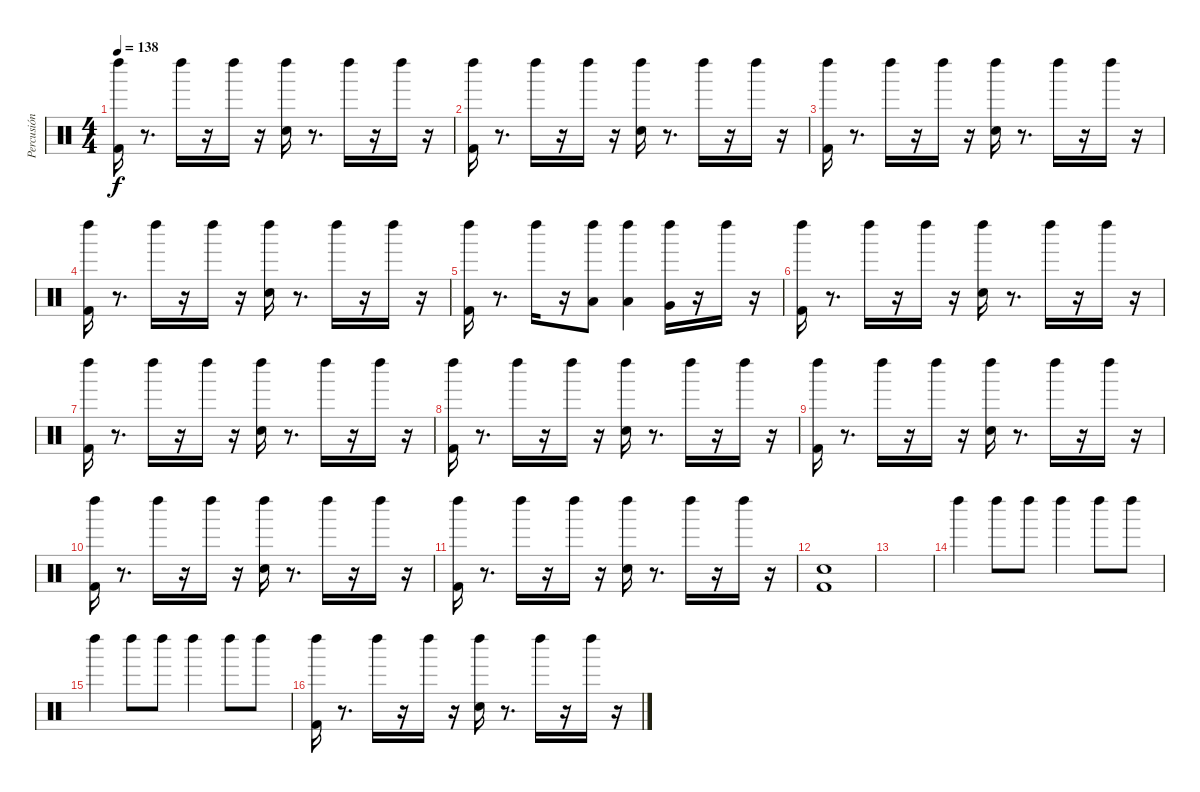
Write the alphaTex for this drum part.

\track ("Percusión" "Percusión") {instrument percussion}
\staff {score}
\articulation defaults
\ts (4 4)
\tempo 138
\clef neutral
\ks c
("Kick (hit) 2" "Left Maraca (hit)").16{dy f} r.8{d} "Left Maraca (hit)".16 r.16 "Left Maraca (hit)".16 r.16 ("Left Maraca (hit)" "Electric Snare (hit)").16 r.8{d} "Left Maraca (hit)".16 r.16 "Left Maraca (hit)".16 r.16 |
("Kick (hit) 2" "Left Maraca (hit)").16 r.8{d} "Left Maraca (hit)".16 r.16 "Left Maraca (hit)".16 r.16 ("Left Maraca (hit)" "Electric Snare (hit)").16 r.8{d} "Left Maraca (hit)".16 r.16 "Left Maraca (hit)".16 r.16 |
("Kick (hit) 2" "Left Maraca (hit)").16 r.8{d} "Left Maraca (hit)".16 r.16 "Left Maraca (hit)".16 r.16 ("Left Maraca (hit)" "Electric Snare (hit)").16 r.8{d} "Left Maraca (hit)".16 r.16 "Left Maraca (hit)".16 r.16 |
("Kick (hit) 2" "Left Maraca (hit)").16 r.8{d} "Left Maraca (hit)".16 r.16 "Left Maraca (hit)".16 r.16 ("Left Maraca (hit)" "Electric Snare (hit)").16 r.8{d} "Left Maraca (hit)".16 r.16 "Left Maraca (hit)".16 r.16 |
("Kick (hit) 2" "Left Maraca (hit)").16 r.8{d} "Left Maraca (hit)".16 r.16 ("Left Maraca (hit)" "Low Tom (hit)").8 ("Left Maraca (hit)" "Low Tom (hit)").4 ("Left Maraca (hit)" "Very Low Tom (hit)").16 r.16 "Left Maraca (hit)".16 r.16 |
("Kick (hit) 2" "Left Maraca (hit)").16 r.8{d} "Left Maraca (hit)".16 r.16 "Left Maraca (hit)".16 r.16 ("Left Maraca (hit)" "Electric Snare (hit)").16 r.8{d} "Left Maraca (hit)".16 r.16 "Left Maraca (hit)".16 r.16 |
("Kick (hit) 2" "Left Maraca (hit)").16 r.8{d} "Left Maraca (hit)".16 r.16 "Left Maraca (hit)".16 r.16 ("Left Maraca (hit)" "Electric Snare (hit)").16 r.8{d} "Left Maraca (hit)".16 r.16 "Left Maraca (hit)".16 r.16 |
("Kick (hit) 2" "Left Maraca (hit)").16 r.8{d} "Left Maraca (hit)".16 r.16 "Left Maraca (hit)".16 r.16 ("Left Maraca (hit)" "Electric Snare (hit)").16 r.8{d} "Left Maraca (hit)".16 r.16 "Left Maraca (hit)".16 r.16 |
("Kick (hit) 2" "Left Maraca (hit)").16 r.8{d} "Left Maraca (hit)".16 r.16 "Left Maraca (hit)".16 r.16 ("Left Maraca (hit)" "Electric Snare (hit)").16 r.8{d} "Left Maraca (hit)".16 r.16 "Left Maraca (hit)".16 r.16 |
("Kick (hit) 2" "Left Maraca (hit)").16 r.8{d} "Left Maraca (hit)".16 r.16 "Left Maraca (hit)".16 r.16 ("Left Maraca (hit)" "Electric Snare (hit)").16 r.8{d} "Left Maraca (hit)".16 r.16 "Left Maraca (hit)".16 r.16 |
("Kick (hit) 2" "Left Maraca (hit)").16 r.8{d} "Left Maraca (hit)".16 r.16 "Left Maraca (hit)".16 r.16 ("Left Maraca (hit)" "Electric Snare (hit)").16 r.8{d} "Left Maraca (hit)".16 r.16 "Left Maraca (hit)".16 r.16 |
("Electric Snare (hit)" "Kick (hit) 2").1 |
|
"Left Maraca (hit)".4 "Left Maraca (hit)".8 "Left Maraca (hit)".8 "Left Maraca (hit)".4 "Left Maraca (hit)".8 "Left Maraca (hit)".8 |
"Left Maraca (hit)".4 "Left Maraca (hit)".8 "Left Maraca (hit)".8 "Left Maraca (hit)".4 "Left Maraca (hit)".8 "Left Maraca (hit)".8 |
("Kick (hit) 2" "Left Maraca (hit)").16 r.8{d} "Left Maraca (hit)".16 r.16 "Left Maraca (hit)".16 r.16 ("Left Maraca (hit)" "Electric Snare (hit)").16 r.8{d} "Left Maraca (hit)".16 r.16 "Left Maraca (hit)".16 r.16
